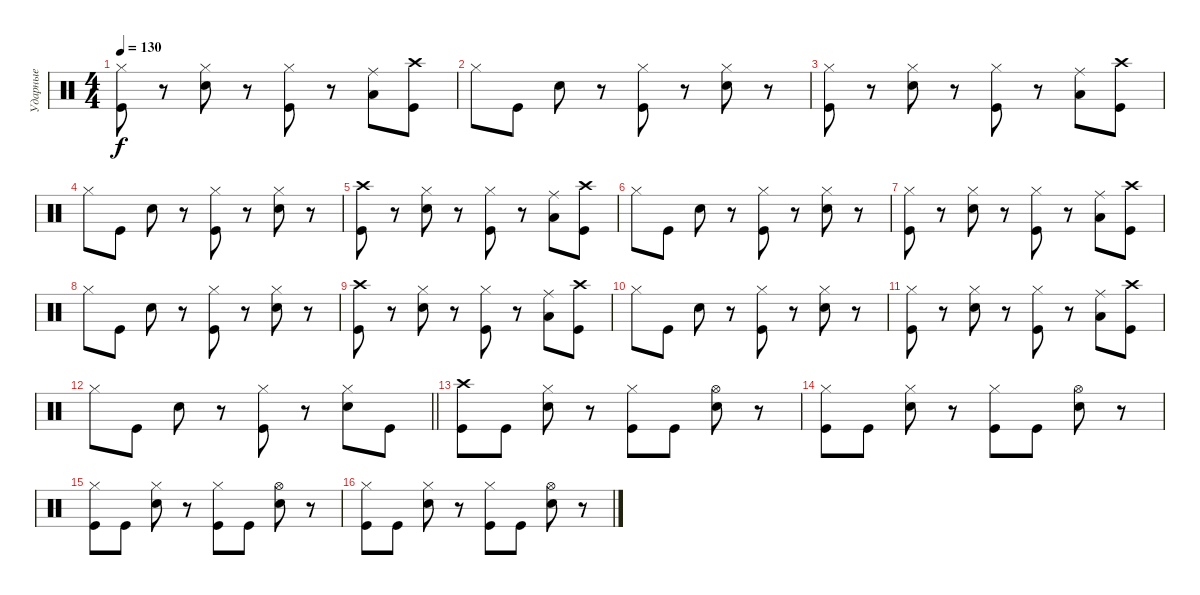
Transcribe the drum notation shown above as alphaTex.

\track ("Ударные" "Ударные") {instrument percussion}
\staff {score}
\articulation defaults
\ts (4 4)
\tempo 130
\clef neutral
\ks c
("Hi-Hat (closed)" "Kick (hit)").8{dy f} r.8 ("Hi-Hat (closed)" "Snare (hit) 2").8 r.8 ("Hi-Hat (closed)" "Kick (hit)").8 r.8 ("Ride (middle)" "Low Tom (hit)").8 ("Crash high (hit)" "Kick (hit)").8 |
"Hi-Hat (closed)".8 "Kick (hit)".8 "Snare (hit) 2".8 r.8 ("Hi-Hat (closed)" "Kick (hit)").8 r.8 ("Hi-Hat (closed)" "Snare (hit) 2").8 r.8 |
("Hi-Hat (closed)" "Kick (hit)").8 r.8 ("Hi-Hat (closed)" "Snare (hit) 2").8 r.8 ("Hi-Hat (closed)" "Kick (hit)").8 r.8 ("Ride (middle)" "Low Tom (hit)").8 ("Crash high (hit)" "Kick (hit)").8 |
"Hi-Hat (closed)".8 "Kick (hit)".8 "Snare (hit) 2".8 r.8 ("Hi-Hat (closed)" "Kick (hit)").8 r.8 ("Hi-Hat (closed)" "Snare (hit) 2").8 r.8 |
("Crash high (hit)" "Kick (hit)").8 r.8 ("Hi-Hat (closed)" "Snare (hit) 2").8 r.8 ("Hi-Hat (closed)" "Kick (hit)").8 r.8 ("Ride (middle)" "Low Tom (hit)").8 ("Crash high (hit)" "Kick (hit)").8 |
"Hi-Hat (closed)".8 "Kick (hit)".8 "Snare (hit) 2".8 r.8 ("Hi-Hat (closed)" "Kick (hit)").8 r.8 ("Hi-Hat (closed)" "Snare (hit) 2").8 r.8 |
("Hi-Hat (closed)" "Kick (hit)").8 r.8 ("Hi-Hat (closed)" "Snare (hit) 2").8 r.8 ("Hi-Hat (closed)" "Kick (hit)").8 r.8 ("Ride (middle)" "Low Tom (hit)").8 ("Crash high (hit)" "Kick (hit)").8 |
"Hi-Hat (closed)".8 "Kick (hit)".8 "Snare (hit) 2".8 r.8 ("Hi-Hat (closed)" "Kick (hit)").8 r.8 ("Hi-Hat (closed)" "Snare (hit) 2").8 r.8 |
("Crash high (hit)" "Kick (hit)").8 r.8 ("Hi-Hat (closed)" "Snare (hit) 2").8 r.8 ("Hi-Hat (closed)" "Kick (hit)").8 r.8 ("Ride (middle)" "Low Tom (hit)").8 ("Crash high (hit)" "Kick (hit)").8 |
"Hi-Hat (closed)".8 "Kick (hit)".8 "Snare (hit) 2".8 r.8 ("Hi-Hat (closed)" "Kick (hit)").8 r.8 ("Hi-Hat (closed)" "Snare (hit) 2").8 r.8 |
("Hi-Hat (closed)" "Kick (hit)").8 r.8 ("Hi-Hat (closed)" "Snare (hit) 2").8 r.8 ("Hi-Hat (closed)" "Kick (hit)").8 r.8 ("Ride (middle)" "Low Tom (hit)").8 ("Crash high (hit)" "Kick (hit)").8 |
\barLineRight lightlight "Hi-Hat (closed)".8 "Kick (hit)".8 "Snare (hit) 2".8
r.8 ("Hi-Hat (closed)" "Kick (hit)").8 r.8 ("Hi-Hat (closed)" "Snare (hit) 2").8 "Kick (hit)".8 |
("Crash high (hit)" "Kick (hit)").8 "Kick (hit)".8 ("Hi-Hat (closed)" "Snare (hit) 2").8 r.8 ("Hi-Hat (closed)" "Kick (hit)").8 "Kick (hit)".8 ("Hi-Hat (open)" "Snare (hit) 2").8 r.8 |
("Hi-Hat (closed)" "Kick (hit)").8 "Kick (hit)".8 ("Hi-Hat (closed)" "Snare (hit) 2").8 r.8 ("Hi-Hat (closed)" "Kick (hit)").8 "Kick (hit)".8 ("Hi-Hat (open)" "Snare (hit) 2").8 r.8 |
("Hi-Hat (closed)" "Kick (hit)").8 "Kick (hit)".8 ("Hi-Hat (closed)" "Snare (hit) 2").8 r.8 ("Hi-Hat (closed)" "Kick (hit)").8 "Kick (hit)".8 ("Hi-Hat (open)" "Snare (hit) 2").8 r.8 |
("Hi-Hat (closed)" "Kick (hit)").8 "Kick (hit)".8 ("Hi-Hat (closed)" "Snare (hit) 2").8 r.8 ("Hi-Hat (closed)" "Kick (hit)").8 "Kick (hit)".8 ("Hi-Hat (open)" "Snare (hit) 2").8 r.8
